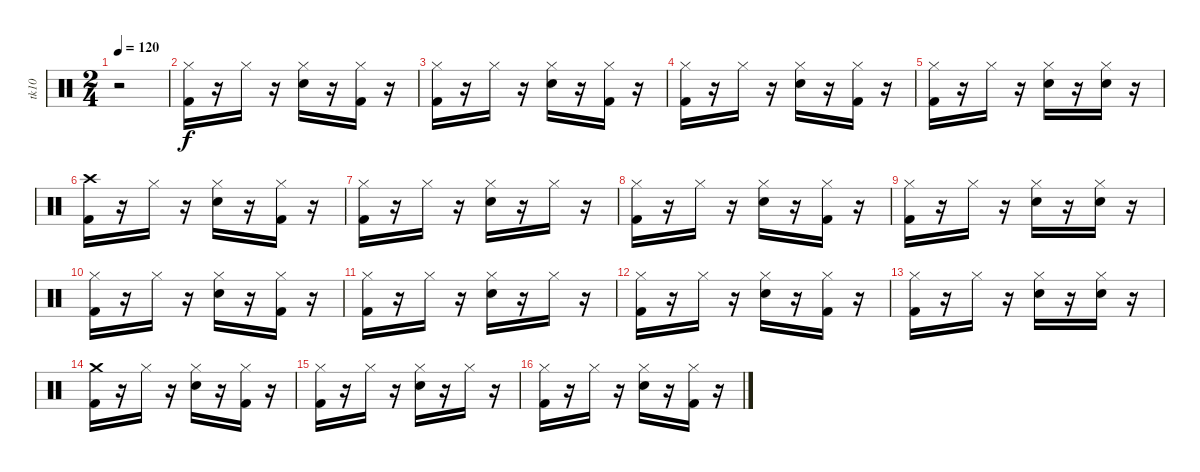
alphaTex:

\track ("tk10" "tk10") {instrument percussion}
\staff {score}
\articulation defaults
\ts (2 4)
\tempo 120
\clef neutral
\ks c
r.2{dy f} |
("Kick (hit) 2" "Hi-Hat (closed)").16 r.16 "Hi-Hat (closed)".16 r.16 ("Hi-Hat (closed)" "Snare (hit) 2").16 r.16 ("Kick (hit) 2" "Hi-Hat (closed)").16 r.16 |
("Hi-Hat (closed)" "Kick (hit) 2").16 r.16 "Hi-Hat (closed)".16 r.16 ("Snare (hit) 2" "Hi-Hat (closed)").16 r.16 ("Hi-Hat (closed)" "Kick (hit) 2").16 r.16 |
("Kick (hit) 2" "Hi-Hat (closed)").16 r.16 "Hi-Hat (closed)".16 r.16 ("Hi-Hat (closed)" "Snare (hit) 2").16 r.16 ("Hi-Hat (closed)" "Kick (hit) 2").16 r.16 |
("Kick (hit) 2" "Hi-Hat (closed)").16 r.16 "Hi-Hat (closed)".16 r.16 ("Hi-Hat (closed)" "Snare (hit) 2").16 r.16 ("Hi-Hat (closed)" "Snare (hit) 2").16 r.16 |
("Kick (hit) 2" "Crash high (hit)").16 r.16 "Hi-Hat (closed)".16 r.16 ("Hi-Hat (closed)" "Snare (hit) 2").16 r.16 ("Kick (hit) 2" "Hi-Hat (closed)").16 r.16 |
("Hi-Hat (closed)" "Kick (hit) 2").16 r.16 "Hi-Hat (closed)".16 r.16 ("Hi-Hat (closed)" "Snare (hit) 2").16 r.16 "Hi-Hat (closed)".16 r.16 |
("Kick (hit) 2" "Hi-Hat (closed)").16 r.16 "Hi-Hat (closed)".16 r.16 ("Hi-Hat (closed)" "Snare (hit) 2").16 r.16 ("Kick (hit) 2" "Hi-Hat (closed)").16 r.16 |
("Hi-Hat (closed)" "Kick (hit) 2").16 r.16 "Hi-Hat (closed)".16 r.16 ("Snare (hit) 2" "Hi-Hat (closed)").16 r.16 ("Hi-Hat (closed)" "Snare (hit) 2").16 r.16 |
("Kick (hit) 2" "Hi-Hat (closed)").16 r.16 "Hi-Hat (closed)".16 r.16 ("Hi-Hat (closed)" "Snare (hit) 2").16 r.16 ("Hi-Hat (closed)" "Kick (hit) 2").16 r.16 |
("Kick (hit) 2" "Hi-Hat (closed)").16 r.16 "Hi-Hat (closed)".16 r.16 ("Snare (hit) 2" "Hi-Hat (closed)").16 r.16 "Hi-Hat (closed)".16 r.16 |
("Kick (hit) 2" "Hi-Hat (closed)").16 r.16 "Hi-Hat (closed)".16 r.16 ("Hi-Hat (closed)" "Snare (hit) 2").16 r.16 ("Hi-Hat (closed)" "Kick (hit) 2").16 r.16 |
("Hi-Hat (closed)" "Kick (hit) 2").16 r.16 "Hi-Hat (closed)".16 r.16 ("Snare (hit) 2" "Hi-Hat (closed)").16 r.16 ("Hi-Hat (closed)" "Snare (hit) 2").16 r.16 |
("Crash medium (hit)" "Kick (hit) 2").16 r.16 "Hi-Hat (closed)".16 r.16 ("Hi-Hat (closed)" "Snare (hit) 2").16 r.16 ("Kick (hit) 2" "Hi-Hat (closed)").16 r.16 |
("Kick (hit) 2" "Hi-Hat (closed)").16 r.16 "Hi-Hat (closed)".16 r.16 ("Hi-Hat (closed)" "Snare (hit) 2").16 r.16 "Hi-Hat (closed)".16 r.16 |
("Kick (hit) 2" "Hi-Hat (closed)").16 r.16 "Hi-Hat (closed)".16 r.16 ("Hi-Hat (closed)" "Snare (hit) 2").16 r.16 ("Kick (hit) 2" "Hi-Hat (closed)").16 r.16
